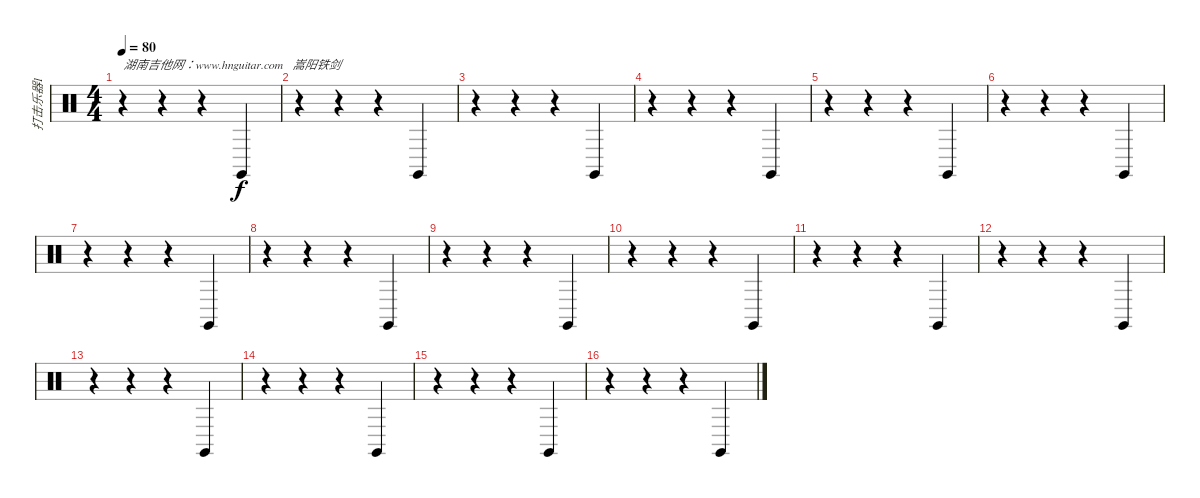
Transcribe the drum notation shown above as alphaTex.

\track ("打击乐器1" "打击乐器1") {instrument percussion}
\staff {score}
\articulation defaults
\ts (4 4)
\tempo 80
\clef neutral
\ks c
r.4{txt "湖南吉他网：www.hnguitar.com   嵩阳铁剑" dy f} r.4 r.4 "Claves (hit)".4 |
r.4 r.4 r.4 "Claves (hit)".4 |
r.4 r.4 r.4 "Claves (hit)".4 |
r.4 r.4 r.4 "Claves (hit)".4 |
r.4 r.4 r.4 "Claves (hit)".4 |
r.4 r.4 r.4 "Claves (hit)".4 |
r.4 r.4 r.4 "Claves (hit)".4 |
r.4 r.4 r.4 "Claves (hit)".4 |
r.4 r.4 r.4 "Claves (hit)".4 |
r.4 r.4 r.4 "Claves (hit)".4 |
r.4 r.4 r.4 "Claves (hit)".4 |
r.4 r.4 r.4 "Claves (hit)".4 |
r.4 r.4 r.4 "Claves (hit)".4 |
r.4 r.4 r.4 "Claves (hit)".4 |
r.4 r.4 r.4 "Claves (hit)".4 |
r.4 r.4 r.4 "Claves (hit)".4
